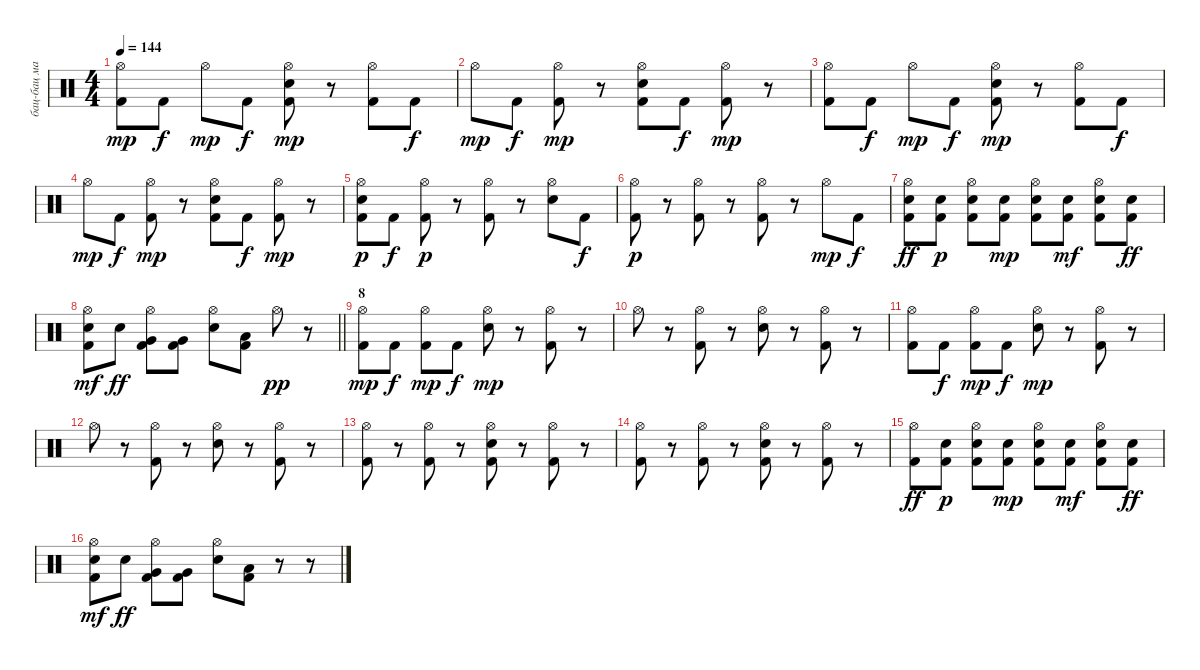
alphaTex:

\track ("бац-бац машина" "бац-бац ма") {instrument percussion}
\staff {score}
\articulation defaults
\ts (4 4)
\tempo 144
\clef neutral
\ks c
("Hi-Hat (open)" "Kick (hit) 2").8{dy mp} "Kick (hit) 2".8{dy f} "Hi-Hat (open)".8{dy mp} "Kick (hit) 2".8{dy f} ("Hi-Hat (open)" "Snare (hit) 2" "Kick (hit) 2").8{dy mp} r.8 ("Hi-Hat (open)" "Kick (hit) 2").8 "Kick (hit) 2".8{dy f} |
"Hi-Hat (open)".8{dy mp} "Kick (hit) 2".8{dy f} ("Hi-Hat (open)" "Kick (hit) 2").8{dy mp} r.8 ("Hi-Hat (open)" "Snare (hit) 2" "Kick (hit) 2").8 "Kick (hit) 2".8{dy f} ("Hi-Hat (open)" "Kick (hit) 2").8{dy mp} r.8 |
("Hi-Hat (open)" "Kick (hit) 2").8 "Kick (hit) 2".8{dy f} "Hi-Hat (open)".8{dy mp} "Kick (hit) 2".8{dy f} ("Hi-Hat (open)" "Snare (hit) 2" "Kick (hit) 2").8{dy mp} r.8 ("Hi-Hat (open)" "Kick (hit) 2").8 "Kick (hit) 2".8{dy f} |
"Hi-Hat (open)".8{dy mp} "Kick (hit) 2".8{dy f} ("Hi-Hat (open)" "Kick (hit) 2").8{dy mp} r.8 ("Hi-Hat (open)" "Snare (hit) 2" "Kick (hit) 2").8 "Kick (hit) 2".8{dy f} ("Hi-Hat (open)" "Kick (hit) 2").8{dy mp} r.8 |
("Hi-Hat (open)" "Snare (hit) 2" "Kick (hit) 2").8{dy p} "Kick (hit) 2".8{dy f} ("Hi-Hat (open)" "Kick (hit) 2").8{dy p} r.8 ("Hi-Hat (open)" "Kick (hit) 2").8 r.8 ("Hi-Hat (open)" "Snare (hit) 2").8 "Kick (hit) 2".8{dy f} |
("Hi-Hat (open)" "Kick (hit) 2").8{dy p} r.8 ("Hi-Hat (open)" "Kick (hit) 2").8 r.8 ("Hi-Hat (open)" "Kick (hit) 2").8 r.8 "Hi-Hat (open)".8{dy mp} "Kick (hit) 2".8{dy f} |
("Hi-Hat (open)" "Snare (hit) 2" "Kick (hit) 2").8{dy ff} ("Electric Snare (hit)" "Kick (hit) 2").8{dy p} ("Hi-Hat (open)" "Electric Snare (hit)" "Kick (hit) 2").8 ("Electric Snare (hit)" "Kick (hit) 2").8{dy mp} ("Hi-Hat (open)" "Electric Snare (hit)" "Kick (hit) 2").8 ("Electric Snare (hit)" "Kick (hit) 2").8{dy mf} ("Hi-Hat (open)" "Electric Snare (hit)" "Kick (hit) 2").8 ("Electric Snare (hit)" "Kick (hit) 2").8{dy ff} |
\barLineRight lightlight
("Hi-Hat (open)" "Electric Snare (hit)" "Kick (hit) 2").8{dy mf} "Snare (hit) 2".8{dy ff} ("Hi-Hat (open)" "Very Low Tom (hit)" "Kick (hit) 2").8 ("Very Low Tom (hit)" "Kick (hit) 2").8 ("Hi-Hat (open)" "Snare (hit) 2").8 ("Low Tom (hit)" "Kick (hit) 2").8 "Hi-Hat (open)".8{dy pp} r.8 |
\section ("" "8")
("Hi-Hat (open)" "Kick (hit) 2").8{dy mp} "Kick (hit) 2".8{dy f} ("Hi-Hat (open)" "Kick (hit) 2").8{dy mp} "Kick (hit) 2".8{dy f} ("Hi-Hat (open)" "Snare (hit) 2").8{dy mp} r.8 ("Hi-Hat (open)" "Kick (hit) 2").8 r.8 |
"Hi-Hat (open)".8 r.8 ("Hi-Hat (open)" "Kick (hit) 2").8 r.8 ("Hi-Hat (open)" "Snare (hit) 2").8 r.8 ("Hi-Hat (open)" "Kick (hit) 2").8 r.8 |
("Hi-Hat (open)" "Kick (hit) 2").8 "Kick (hit) 2".8{dy f} ("Hi-Hat (open)" "Kick (hit) 2").8{dy mp} "Kick (hit) 2".8{dy f} ("Hi-Hat (open)" "Snare (hit) 2").8{dy mp} r.8 ("Hi-Hat (open)" "Kick (hit) 2").8 r.8 |
"Hi-Hat (open)".8 r.8 ("Hi-Hat (open)" "Kick (hit) 2").8 r.8 ("Hi-Hat (open)" "Snare (hit) 2").8 r.8 ("Hi-Hat (open)" "Kick (hit) 2").8 r.8 |
("Hi-Hat (open)" "Kick (hit) 2").8 r.8 ("Hi-Hat (open)" "Kick (hit) 2").8 r.8 ("Hi-Hat (open)" "Snare (hit) 2" "Kick (hit) 2").8 r.8 ("Hi-Hat (open)" "Kick (hit) 2").8 r.8 |
("Hi-Hat (open)" "Kick (hit) 2").8 r.8 ("Hi-Hat (open)" "Kick (hit) 2").8 r.8 ("Hi-Hat (open)" "Snare (hit) 2" "Kick (hit) 2").8 r.8 ("Hi-Hat (open)" "Kick (hit) 2").8 r.8 |
("Hi-Hat (open)" "Kick (hit) 2").8{dy ff} ("Electric Snare (hit)" "Kick (hit) 2").8{dy p} ("Hi-Hat (open)" "Electric Snare (hit)" "Kick (hit) 2").8 ("Electric Snare (hit)" "Kick (hit) 2").8{dy mp} ("Hi-Hat (open)" "Electric Snare (hit)" "Kick (hit) 2").8 ("Electric Snare (hit)" "Kick (hit) 2").8{dy mf} ("Hi-Hat (open)" "Electric Snare (hit)" "Kick (hit) 2").8 ("Electric Snare (hit)" "Kick (hit) 2").8{dy ff} |
("Hi-Hat (open)" "Electric Snare (hit)" "Kick (hit) 2").8{dy mf} "Snare (hit) 2".8{dy ff} ("Hi-Hat (open)" "Very Low Tom (hit)" "Kick (hit) 2").8 ("Very Low Tom (hit)" "Kick (hit) 2").8 ("Hi-Hat (open)" "Snare (hit) 2").8 ("Low Tom (hit)" "Kick (hit) 2").8 r.8 r.8
